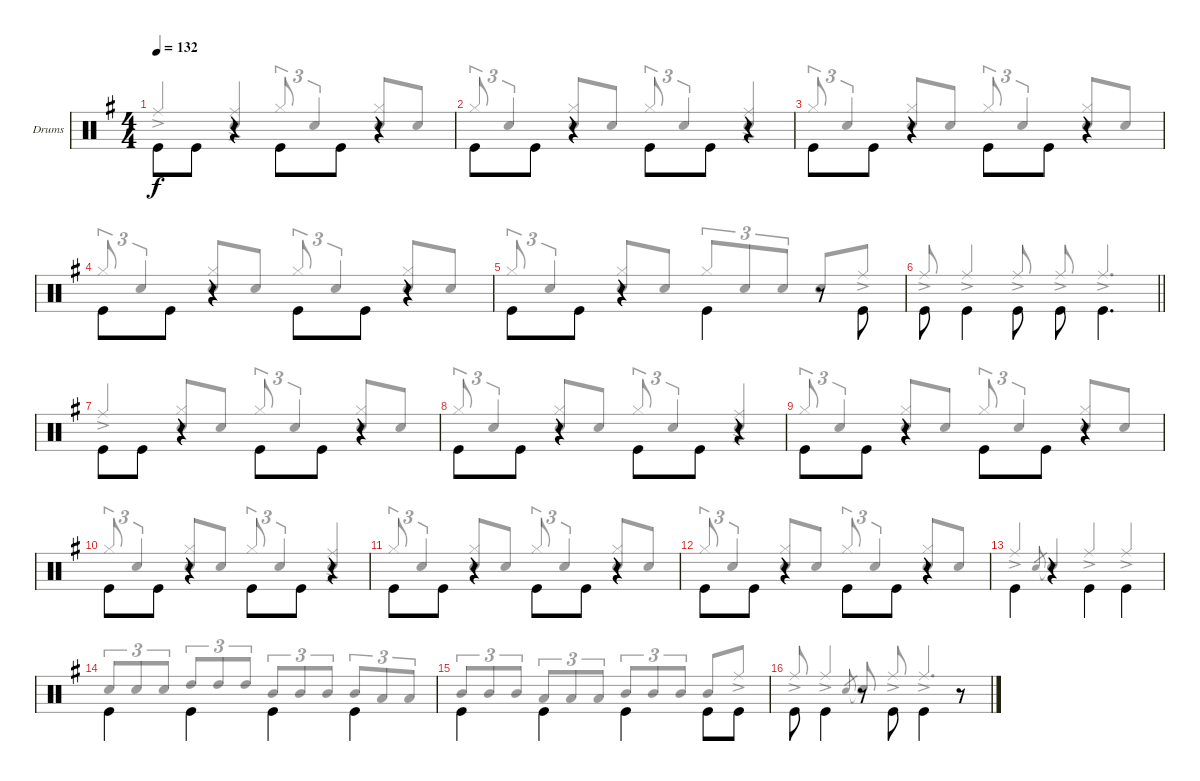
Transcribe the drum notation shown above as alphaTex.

\bracketExtendMode groupsimilarinstruments
\firstSystemTrackNameOrientation horizontal
\otherSystemsTrackNameOrientation horizontal
\track ("Drums" "Drums") {instrument percussion}
\staff {score}
\articulation defaults
\voice
\ts (4 4)
\tempo 132
\clef neutral
\scale
1.04288
\ks g "Kick (hit)".8{dy f beam invert} "Kick (hit)".8
r.4 "Kick (hit)".8{beam invert} "Kick (hit)".8 r.4 |
\scale
0.957125 "Kick (hit)".8{beam invert} "Kick (hit)".8 r.4 "Kick (hit)".8{beam invert} "Kick (hit)".8 r.4 |
\scale
1.04288 "Kick (hit)".8{beam invert} "Kick (hit)".8 r.4 "Kick (hit)".8{beam invert} "Kick (hit)".8 r.4 |
\scale
0.957125 "Kick (hit)".8{beam invert} "Kick (hit)".8 r.4 "Kick (hit)".8{beam invert} "Kick (hit)".8 r.4 |
\scale
1.04288 "Kick (hit)".8{beam invert} "Kick (hit)".8 r.4 "Kick (hit)".4{beam invert} r.8 "Kick (hit)".8{beam invert} |
\scale
0.957125
\barLineRight lightlight "Kick (hit)".8{beam invert} "Kick (hit)".4{beam invert} "Kick (hit)".8{beam invert} "Kick (hit)".8{beam invert} "Kick (hit)".4{d beam invert}
|
\scale
1.04288 "Kick (hit)".8{beam invert} "Kick (hit)".8 r.4 "Kick (hit)".8{beam invert} "Kick (hit)".8 r.4 |
\scale
0.957125 "Kick (hit)".8{beam invert} "Kick (hit)".8 r.4 "Kick (hit)".8{beam invert} "Kick (hit)".8 r.4 |
\scale
1.04288 "Kick (hit)".8{beam invert} "Kick (hit)".8 r.4 "Kick (hit)".8{beam invert} "Kick (hit)".8 r.4 |
\scale
0.957125 "Kick (hit)".8{beam invert} "Kick (hit)".8 r.4 "Kick (hit)".8{beam invert} "Kick (hit)".8 r.4 |
\scale
1.04288 "Kick (hit)".8{beam invert} "Kick (hit)".8 r.4 "Kick (hit)".8{beam invert} "Kick (hit)".8 r.4 |
\scale
0.957125 "Kick (hit)".8{beam invert} "Kick (hit)".8 r.4 "Kick (hit)".8{beam invert} "Kick (hit)".8 r.4 |
\scale
1.04288 "Kick (hit)".4{beam invert} r.4 "Kick (hit)".4{beam invert} "Kick (hit)".4{beam invert} |
\scale
0.957125 "Kick (hit)".4{beam invert} "Kick (hit)".4{beam invert} "Kick (hit)".4{beam invert} "Kick (hit)".4{beam invert} |
\scale
1.04288 "Kick (hit)".4{beam invert} "Kick (hit)".4{beam invert} "Kick (hit)".4{beam invert} "Kick (hit)".8{beam invert} "Kick (hit)".8 |
\scale
0.957125 "Kick (hit)".8{beam invert} "Kick (hit)".4{beam invert} r.8 "Kick (hit)".8{beam invert} "Kick (hit)".4{beam invert} r.8
\voice
\clef neutral
\ottava regular
\simile none
\scale
1.04288
\ks g "Ride (middle)"{ac}.4{dy f beam invert}
("Snare (hit) 2" "Ride (middle)"{ac}).4{beam invert} "Hi-Hat (closed)".8{tu (3 2) beam invert} "Snare (hit) 2".4{tu (3 2) beam invert} ("Hi-Hat (closed)" "Snare (hit) 2").8{beam invert} "Snare (hit) 2".8 |
\scale
0.957125 "Hi-Hat (closed)".8{tu (3 2) beam invert} "Snare (hit) 2".4{tu (3 2) beam invert} ("Hi-Hat (closed)" "Snare (hit) 2").8{beam invert} "Snare (hit) 2".8 "Hi-Hat (closed)".8{tu (3 2) beam invert} "Snare (hit) 2".4{tu (3 2) beam invert} ("Snare (hit) 2" "Ride (middle)"{ac}).4{beam invert} |
\scale
1.04288 "Hi-Hat (closed)".8{tu (3 2) beam invert} "Snare (hit) 2".4{tu (3 2) beam invert} ("Hi-Hat (closed)" "Snare (hit) 2").8{beam invert} "Snare (hit) 2".8 "Hi-Hat (closed)".8{tu (3 2) beam invert} "Snare (hit) 2".4{tu (3 2) beam invert} ("Hi-Hat (closed)" "Snare (hit) 2").8{beam invert} "Snare (hit) 2".8 |
\scale
0.957125 "Hi-Hat (closed)".8{tu (3 2) beam invert} "Snare (hit) 2".4{tu (3 2) beam invert} ("Hi-Hat (closed)" "Snare (hit) 2").8{beam invert} "Snare (hit) 2".8 "Hi-Hat (closed)".8{tu (3 2) beam invert} "Snare (hit) 2".4{tu (3 2) beam invert} ("Hi-Hat (closed)" "Snare (hit) 2").8{beam invert} "Snare (hit) 2".8 |
\scale
1.04288 "Hi-Hat (closed)".8{tu (3 2) beam invert} "Snare (hit) 2".4{tu (3 2) beam invert} ("Hi-Hat (closed)" "Snare (hit) 2").8{beam invert} "Snare (hit) 2".8 "Hi-Hat (closed)".8{tu (3 2) beam invert} "Snare (hit) 2".8{tu (3 2)} "Snare (hit) 2".8{tu (3 2)} "Snare (hit) 2".8{beam invert} "Ride (middle)"{ac}.8 |
\scale
0.957125
\barLineRight lightlight "Ride (middle)"{ac}.8{beam invert} "Ride (middle)"{ac}.4{beam invert} "Ride (middle)"{ac}.8{beam invert} "Ride (middle)"{ac}.8{beam invert} "Ride (middle)"{ac}.4{d beam invert}
|
\scale
1.04288 "Ride (middle)"{ac}.4{beam invert} ("Hi-Hat (closed)" "Snare (hit) 2").8{beam invert} "Snare (hit) 2".8 "Hi-Hat (closed)".8{tu (3 2) beam invert} "Snare (hit) 2".4{tu (3 2) beam invert} ("Hi-Hat (closed)" "Snare (hit) 2").8{beam invert} "Snare (hit) 2".8 |
\scale
0.957125 "Hi-Hat (closed)".8{tu (3 2) beam invert} "Snare (hit) 2".4{tu (3 2) beam invert} ("Hi-Hat (closed)" "Snare (hit) 2").8{beam invert} "Snare (hit) 2".8 "Hi-Hat (closed)".8{tu (3 2) beam invert} "Snare (hit) 2".4{tu (3 2) beam invert} ("Snare (hit) 2" "Ride (middle)"{ac}).4{beam invert} |
\scale
1.04288 "Hi-Hat (closed)".8{tu (3 2) beam invert} "Snare (hit) 2".4{tu (3 2) beam invert} ("Hi-Hat (closed)" "Snare (hit) 2").8{beam invert} "Snare (hit) 2".8 "Hi-Hat (closed)".8{tu (3 2) beam invert} "Snare (hit) 2".4{tu (3 2) beam invert} ("Hi-Hat (closed)" "Snare (hit) 2").8{beam invert} "Snare (hit) 2".8 |
\scale
0.957125 "Hi-Hat (closed)".8{tu (3 2) beam invert} "Snare (hit) 2".4{tu (3 2) beam invert} ("Hi-Hat (closed)" "Snare (hit) 2").8{beam invert} "Snare (hit) 2".8 "Hi-Hat (closed)".8{tu (3 2) beam invert} "Snare (hit) 2".4{tu (3 2) beam invert} ("Snare (hit) 2" "Ride (middle)"{ac}).4{beam invert} |
\scale
1.04288 "Hi-Hat (closed)".8{tu (3 2) beam invert} "Snare (hit) 2".4{tu (3 2) beam invert} ("Hi-Hat (closed)" "Snare (hit) 2").8{beam invert} "Snare (hit) 2".8 "Hi-Hat (closed)".8{tu (3 2) beam invert} "Snare (hit) 2".4{tu (3 2) beam invert} ("Hi-Hat (closed)" "Snare (hit) 2").8{beam invert} "Snare (hit) 2".8 |
\scale
0.957125 "Hi-Hat (closed)".8{tu (3 2) beam invert} "Snare (hit) 2".4{tu (3 2) beam invert} ("Hi-Hat (closed)" "Snare (hit) 2").8{beam invert} "Snare (hit) 2".8 "Hi-Hat (closed)".8{tu (3 2) beam invert} "Snare (hit) 2".4{tu (3 2) beam invert} ("Hi-Hat (closed)" "Snare (hit) 2").8{beam invert} "Snare (hit) 2".8 |
\scale
1.04288 "Ride (middle)"{ac}.4{beam invert} "Snare (hit) 2".8{gr beam invert} "Snare (hit) 2"{t}.4{beam invert} "Ride (middle)"{ac}.4{beam invert} "Ride (middle)"{ac}.4{beam invert} |
\scale
0.957125 "Snare (hit) 2".8{tu (3 2) beam invert} "Snare (hit) 2".8{tu (3 2) beam invert} "Snare (hit) 2".8{tu (3 2) beam invert} "High Tom (hit)".8{tu (3 2) beam invert} "High Tom (hit)".8{tu (3 2) beam invert} "High Tom (hit)".8{tu (3 2) beam invert} "Mid Tom (hit)".8{tu (3 2) beam invert} "Mid Tom (hit)".8{tu (3 2) beam invert} "Mid Tom (hit)".8{tu (3 2) beam invert} "Mid Tom (hit)".8{tu (3 2) beam invert} "Low Tom (hit)".8{tu (3 2) beam invert} "Low Tom (hit)".8{tu (3 2) beam invert} |
\scale
1.04288 "Mid Tom (hit)".8{tu (3 2) beam invert} "Mid Tom (hit)".8{tu (3 2) beam invert} "Mid Tom (hit)".8{tu (3 2) beam invert} "Low Tom (hit)".8{tu (3 2) beam invert} "Low Tom (hit)".8{tu (3 2) beam invert} "Low Tom (hit)".8{tu (3 2) beam invert} "Mid Tom (hit)".8{tu (3 2) beam invert} "Mid Tom (hit)".8{tu (3 2) beam invert} "Mid Tom (hit)".8{tu (3 2) beam invert} "Mid Tom (hit)".8{beam invert} "Ride (middle)"{ac}.8 |
\scale
0.957125 "Ride (middle)"{ac}.8{beam invert} "Ride (middle)"{ac}.4{beam invert} "Snare (hit) 2".8{gr beam invert} "Snare (hit) 2"{t}.8{beam invert} "Ride (middle)"{ac}.8{beam invert} "Ride (middle)"{ac}.4{d beam invert}
